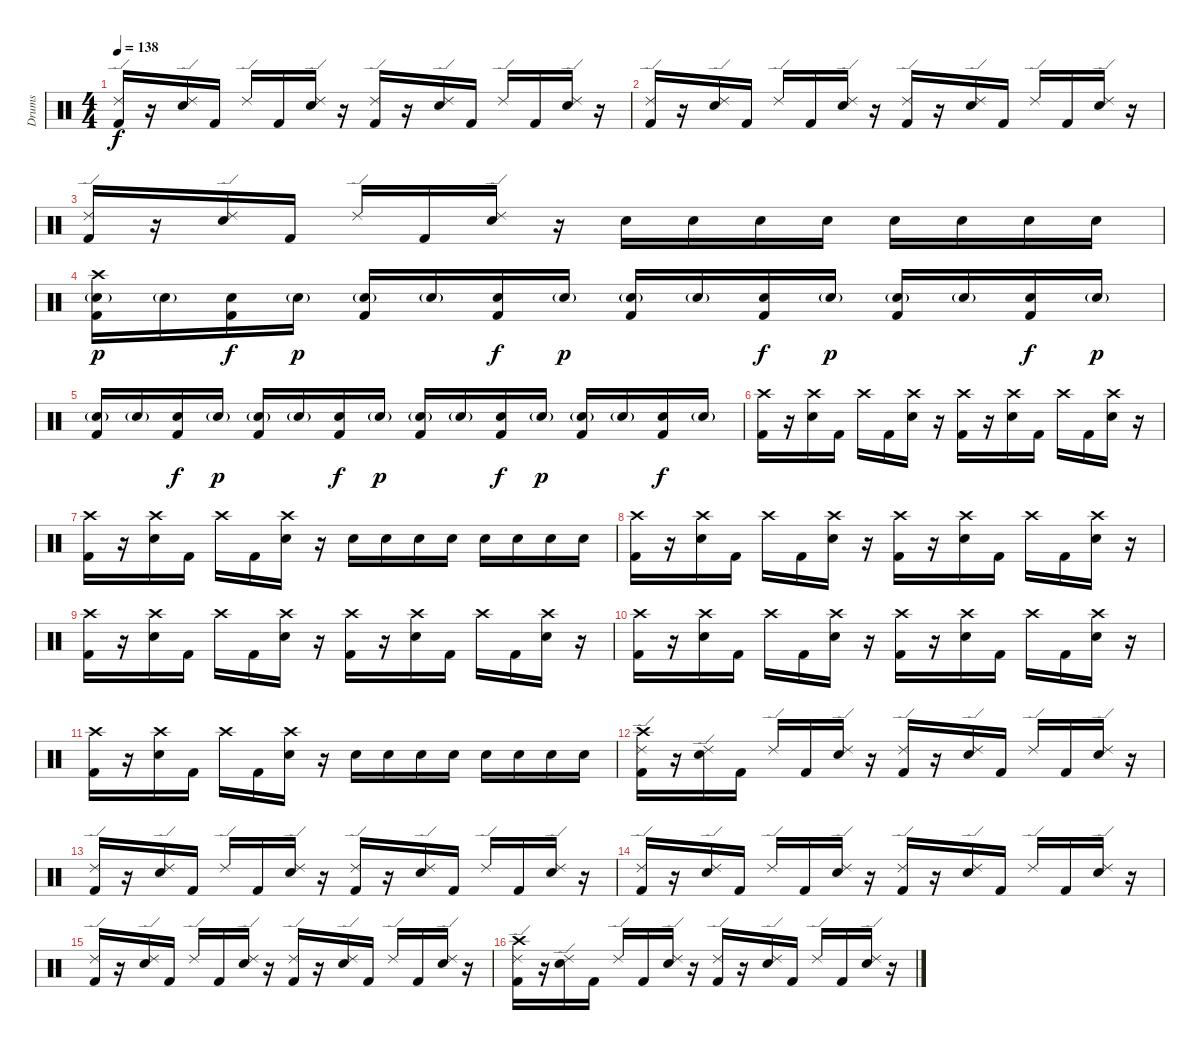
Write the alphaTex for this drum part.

\track ("Drums" "Drums") {instrument percussion}
\staff {score}
\articulation defaults
\ts (4 4)
\tempo 138
\clef neutral
\ks c
("Ride (edge) 2" "Kick (hit) 2").16{dy f} r.16 ("Ride (edge) 2" "Snare (hit) 2").16 "Kick (hit) 2".16 "Ride (edge) 2".16 "Kick (hit) 2".16 ("Ride (edge) 2" "Snare (hit) 2").16 r.16 ("Ride (edge) 2" "Kick (hit) 2").16 r.16 ("Ride (edge) 2" "Snare (hit) 2").16 "Kick (hit) 2".16 "Ride (edge) 2".16 "Kick (hit) 2".16 ("Ride (edge) 2" "Snare (hit) 2").16 r.16 |
("Ride (edge) 2" "Kick (hit) 2").16 r.16 ("Ride (edge) 2" "Snare (hit) 2").16 "Kick (hit) 2".16 "Ride (edge) 2".16 "Kick (hit) 2".16 ("Ride (edge) 2" "Snare (hit) 2").16 r.16 ("Ride (edge) 2" "Kick (hit) 2").16 r.16 ("Ride (edge) 2" "Snare (hit) 2").16 "Kick (hit) 2".16 "Ride (edge) 2".16 "Kick (hit) 2".16 ("Ride (edge) 2" "Snare (hit) 2").16 r.16 |
("Ride (edge) 2" "Kick (hit) 2").16 r.16 ("Ride (edge) 2" "Snare (hit) 2").16 "Kick (hit) 2".16 "Ride (edge) 2".16 "Kick (hit) 2".16 ("Ride (edge) 2" "Snare (hit) 2").16 r.16 "Snare (hit) 2".16 "Snare (hit) 2".16 "Snare (hit) 2".16 "Snare (hit) 2".16 "Snare (hit) 2".16 "Snare (hit) 2".16 "Snare (hit) 2".16 "Snare (hit) 2".16 |
("Crash high (hit)" "Snare (hit) 2"{g} "Kick (hit) 2").16{dy p} "Snare (hit) 2"{g}.16 ("Snare (hit) 2" "Kick (hit) 2").16{dy f} "Snare (hit) 2"{g}.16{dy p} ("Snare (hit) 2"{g} "Kick (hit) 2").16 "Snare (hit) 2"{g}.16 ("Snare (hit) 2" "Kick (hit) 2").16{dy f} "Snare (hit) 2"{g}.16{dy p} ("Snare (hit) 2"{g} "Kick (hit) 2").16 "Snare (hit) 2"{g}.16 ("Snare (hit) 2" "Kick (hit) 2").16{dy f} "Snare (hit) 2"{g}.16{dy p} ("Snare (hit) 2"{g} "Kick (hit) 2").16 "Snare (hit) 2"{g}.16 ("Snare (hit) 2" "Kick (hit) 2").16{dy f} "Snare (hit) 2"{g}.16{dy p} |
("Snare (hit) 2"{g} "Kick (hit) 2").16 "Snare (hit) 2"{g}.16 ("Snare (hit) 2" "Kick (hit) 2").16{dy f} "Snare (hit) 2"{g}.16{dy p} ("Snare (hit) 2"{g} "Kick (hit) 2").16 "Snare (hit) 2"{g}.16 ("Snare (hit) 2" "Kick (hit) 2").16{dy f} "Snare (hit) 2"{g}.16{dy p} ("Snare (hit) 2"{g} "Kick (hit) 2").16 "Snare (hit) 2"{g}.16 ("Snare (hit) 2" "Kick (hit) 2").16{dy f} "Snare (hit) 2"{g}.16{dy p} ("Snare (hit) 2"{g} "Kick (hit) 2").16 "Snare (hit) 2"{g}.16 ("Snare (hit) 2" "Kick (hit) 2").16{dy f} "Snare (hit) 2"{g}.16 |
("Crash high (hit)" "Kick (hit) 2").16 r.16 ("Crash high (hit)" "Snare (hit) 2").16 "Kick (hit) 2".16 "Crash high (hit)".16 "Kick (hit) 2".16 ("Crash high (hit)" "Snare (hit) 2").16 r.16 ("Crash high (hit)" "Kick (hit) 2").16 r.16 ("Crash high (hit)" "Snare (hit) 2").16 "Kick (hit) 2".16 "Crash high (hit)".16 "Kick (hit) 2".16 ("Crash high (hit)" "Snare (hit) 2").16 r.16 |
("Crash high (hit)" "Kick (hit) 2").16 r.16 ("Crash high (hit)" "Snare (hit) 2").16 "Kick (hit) 2".16 "Crash high (hit)".16 "Kick (hit) 2".16 ("Crash high (hit)" "Snare (hit) 2").16 r.16 "Snare (hit) 2".16 "Snare (hit) 2".16 "Snare (hit) 2".16 "Snare (hit) 2".16 "Snare (hit) 2".16 "Snare (hit) 2".16 "Snare (hit) 2".16 "Snare (hit) 2".16 |
("Crash high (hit)" "Kick (hit) 2").16 r.16 ("Crash high (hit)" "Snare (hit) 2").16 "Kick (hit) 2".16 "Crash high (hit)".16 "Kick (hit) 2".16 ("Crash high (hit)" "Snare (hit) 2").16 r.16 ("Crash high (hit)" "Kick (hit) 2").16 r.16 ("Crash high (hit)" "Snare (hit) 2").16 "Kick (hit) 2".16 "Crash high (hit)".16 "Kick (hit) 2".16 ("Crash high (hit)" "Snare (hit) 2").16 r.16 |
("Crash high (hit)" "Kick (hit) 2").16 r.16 ("Crash high (hit)" "Snare (hit) 2").16 "Kick (hit) 2".16 "Crash high (hit)".16 "Kick (hit) 2".16 ("Crash high (hit)" "Snare (hit) 2").16 r.16 ("Crash high (hit)" "Kick (hit) 2").16 r.16 ("Crash high (hit)" "Snare (hit) 2").16 "Kick (hit) 2".16 "Crash high (hit)".16 "Kick (hit) 2".16 ("Crash high (hit)" "Snare (hit) 2").16 r.16 |
("Crash high (hit)" "Kick (hit) 2").16 r.16 ("Crash high (hit)" "Snare (hit) 2").16 "Kick (hit) 2".16 "Crash high (hit)".16 "Kick (hit) 2".16 ("Crash high (hit)" "Snare (hit) 2").16 r.16 ("Crash high (hit)" "Kick (hit) 2").16 r.16 ("Crash high (hit)" "Snare (hit) 2").16 "Kick (hit) 2".16 "Crash high (hit)".16 "Kick (hit) 2".16 ("Crash high (hit)" "Snare (hit) 2").16 r.16 |
("Crash high (hit)" "Kick (hit) 2").16 r.16 ("Crash high (hit)" "Snare (hit) 2").16 "Kick (hit) 2".16 "Crash high (hit)".16 "Kick (hit) 2".16 ("Crash high (hit)" "Snare (hit) 2").16 r.16 "Snare (hit) 2".16 "Snare (hit) 2".16 "Snare (hit) 2".16 "Snare (hit) 2".16 "Snare (hit) 2".16 "Snare (hit) 2".16 "Snare (hit) 2".16 "Snare (hit) 2".16 |
("Crash high (hit)" "Ride (edge) 2" "Kick (hit) 2").16 r.16 ("Ride (edge) 2" "Snare (hit) 2").16 "Kick (hit) 2".16 "Ride (edge) 2".16 "Kick (hit) 2".16 ("Ride (edge) 2" "Snare (hit) 2").16 r.16 ("Ride (edge) 2" "Kick (hit) 2").16 r.16 ("Ride (edge) 2" "Snare (hit) 2").16 "Kick (hit) 2".16 "Ride (edge) 2".16 "Kick (hit) 2".16 ("Ride (edge) 2" "Snare (hit) 2").16 r.16 |
("Ride (edge) 2" "Kick (hit) 2").16 r.16 ("Ride (edge) 2" "Snare (hit) 2").16 "Kick (hit) 2".16 "Ride (edge) 2".16 "Kick (hit) 2".16 ("Ride (edge) 2" "Snare (hit) 2").16 r.16 ("Ride (edge) 2" "Kick (hit) 2").16 r.16 ("Ride (edge) 2" "Snare (hit) 2").16 "Kick (hit) 2".16 "Ride (edge) 2".16 "Kick (hit) 2".16 ("Ride (edge) 2" "Snare (hit) 2").16 r.16 |
("Ride (edge) 2" "Kick (hit) 2").16 r.16 ("Ride (edge) 2" "Snare (hit) 2").16 "Kick (hit) 2".16 "Ride (edge) 2".16 "Kick (hit) 2".16 ("Ride (edge) 2" "Snare (hit) 2").16 r.16 ("Ride (edge) 2" "Kick (hit) 2").16 r.16 ("Ride (edge) 2" "Snare (hit) 2").16 "Kick (hit) 2".16 "Ride (edge) 2".16 "Kick (hit) 2".16 ("Ride (edge) 2" "Snare (hit) 2").16 r.16 |
("Ride (edge) 2" "Kick (hit) 2").16 r.16 ("Ride (edge) 2" "Snare (hit) 2").16 "Kick (hit) 2".16 "Ride (edge) 2".16 "Kick (hit) 2".16 ("Ride (edge) 2" "Snare (hit) 2").16 r.16 ("Ride (edge) 2" "Kick (hit) 2").16 r.16 ("Ride (edge) 2" "Snare (hit) 2").16 "Kick (hit) 2".16 "Ride (edge) 2".16 "Kick (hit) 2".16 ("Ride (edge) 2" "Snare (hit) 2").16 r.16 |
("Crash high (hit)" "Ride (edge) 2" "Kick (hit) 2").16 r.16 ("Ride (edge) 2" "Snare (hit) 2").16 "Kick (hit) 2".16 "Ride (edge) 2".16 "Kick (hit) 2".16 ("Ride (edge) 2" "Snare (hit) 2").16 r.16 ("Ride (edge) 2" "Kick (hit) 2").16 r.16 ("Ride (edge) 2" "Snare (hit) 2").16 "Kick (hit) 2".16 "Ride (edge) 2".16 "Kick (hit) 2".16 ("Ride (edge) 2" "Snare (hit) 2").16 r.16
